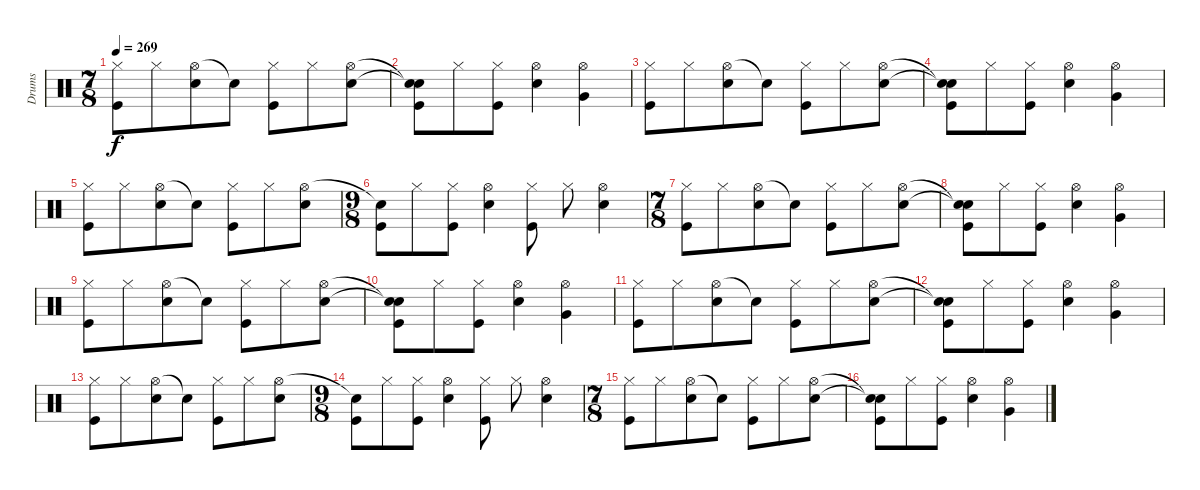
\track ("Drums" "Drums") {instrument percussion}
\staff {score}
\articulation defaults
\ts (7 8)
\tempo 269
\clef neutral
\ks c
("Hi-Hat (closed)" "Kick (hit)").8{dy f} "Hi-Hat (closed)".8 ("Hi-Hat (open)" "Electric Snare (hit)").8 "Snare (hit)"{t}.8 ("Hi-Hat (closed)" "Kick (hit)").8 "Hi-Hat (closed)".8 ("Hi-Hat (open)" "Electric Snare (hit)").8 |
("Snare (hit)"{t} "Snare (hit)"{t} "Kick (hit)").8 "Hi-Hat (closed)".8 ("Hi-Hat (closed)" "Kick (hit)").8 ("Hi-Hat (open)" "Electric Snare (hit)").4 ("Hi-Hat (open)" "Very Low Tom (hit)").4 |
("Hi-Hat (closed)" "Kick (hit)").8 "Hi-Hat (closed)".8 ("Hi-Hat (open)" "Electric Snare (hit)").8 "Snare (hit)"{t}.8 ("Hi-Hat (closed)" "Kick (hit)").8 "Hi-Hat (closed)".8 ("Hi-Hat (open)" "Electric Snare (hit)").8 |
("Snare (hit)"{t} "Snare (hit)"{t} "Kick (hit)").8 "Hi-Hat (closed)".8 ("Hi-Hat (closed)" "Kick (hit)").8 ("Hi-Hat (open)" "Electric Snare (hit)").4 ("Hi-Hat (open)" "Very Low Tom (hit)").4 |
("Hi-Hat (closed)" "Kick (hit)").8 "Hi-Hat (closed)".8 ("Hi-Hat (open)" "Electric Snare (hit)").8 "Snare (hit)"{t}.8 ("Hi-Hat (closed)" "Kick (hit)").8 "Hi-Hat (closed)".8 ("Hi-Hat (open)" "Electric Snare (hit)").8 |
\ts (9 8)
("Snare (hit)"{t} "Kick (hit)").8 "Hi-Hat (closed)".8 ("Hi-Hat (closed)" "Kick (hit)").8 ("Hi-Hat (open)" "Electric Snare (hit)").4 ("Hi-Hat (closed)" "Kick (hit)").8 "Hi-Hat (closed)".8 ("Hi-Hat (open)" "Electric Snare (hit)").4 |
\ts (7 8)
("Hi-Hat (closed)" "Kick (hit)").8 "Hi-Hat (closed)".8 ("Hi-Hat (open)" "Electric Snare (hit)").8 "Snare (hit)"{t}.8 ("Hi-Hat (closed)" "Kick (hit)").8 "Hi-Hat (closed)".8 ("Hi-Hat (open)" "Electric Snare (hit)").8 |
("Snare (hit)"{t} "Snare (hit)"{t} "Kick (hit)").8 "Hi-Hat (closed)".8 ("Hi-Hat (closed)" "Kick (hit)").8 ("Hi-Hat (open)" "Electric Snare (hit)").4 ("Hi-Hat (open)" "Very Low Tom (hit)").4 |
("Hi-Hat (closed)" "Kick (hit)").8 "Hi-Hat (closed)".8 ("Hi-Hat (open)" "Electric Snare (hit)").8 "Snare (hit)"{t}.8 ("Hi-Hat (closed)" "Kick (hit)").8 "Hi-Hat (closed)".8 ("Hi-Hat (open)" "Electric Snare (hit)").8 |
("Snare (hit)"{t} "Snare (hit)"{t} "Kick (hit)").8 "Hi-Hat (closed)".8 ("Hi-Hat (closed)" "Kick (hit)").8 ("Hi-Hat (open)" "Electric Snare (hit)").4 ("Hi-Hat (open)" "Very Low Tom (hit)").4 |
("Hi-Hat (closed)" "Kick (hit)").8 "Hi-Hat (closed)".8 ("Hi-Hat (open)" "Electric Snare (hit)").8 "Snare (hit)"{t}.8 ("Hi-Hat (closed)" "Kick (hit)").8 "Hi-Hat (closed)".8 ("Hi-Hat (open)" "Electric Snare (hit)").8 |
("Snare (hit)"{t} "Snare (hit)"{t} "Kick (hit)").8 "Hi-Hat (closed)".8 ("Hi-Hat (closed)" "Kick (hit)").8 ("Hi-Hat (open)" "Electric Snare (hit)").4 ("Hi-Hat (open)" "Very Low Tom (hit)").4 |
("Hi-Hat (closed)" "Kick (hit)").8 "Hi-Hat (closed)".8 ("Hi-Hat (open)" "Electric Snare (hit)").8 "Snare (hit)"{t}.8 ("Hi-Hat (closed)" "Kick (hit)").8 "Hi-Hat (closed)".8 ("Hi-Hat (open)" "Electric Snare (hit)").8 |
\ts (9 8)
("Snare (hit)"{t} "Kick (hit)").8 "Hi-Hat (closed)".8 ("Hi-Hat (closed)" "Kick (hit)").8 ("Hi-Hat (open)" "Electric Snare (hit)").4 ("Hi-Hat (closed)" "Kick (hit)").8 "Hi-Hat (closed)".8 ("Hi-Hat (open)" "Electric Snare (hit)").4 |
\ts (7 8)
("Hi-Hat (closed)" "Kick (hit)").8 "Hi-Hat (closed)".8 ("Hi-Hat (open)" "Electric Snare (hit)").8 "Snare (hit)"{t}.8 ("Hi-Hat (closed)" "Kick (hit)").8 "Hi-Hat (closed)".8 ("Hi-Hat (open)" "Electric Snare (hit)").8 |
("Snare (hit)"{t} "Snare (hit)"{t} "Kick (hit)").8 "Hi-Hat (closed)".8 ("Hi-Hat (closed)" "Kick (hit)").8 ("Hi-Hat (open)" "Electric Snare (hit)").4 ("Hi-Hat (open)" "Very Low Tom (hit)").4
